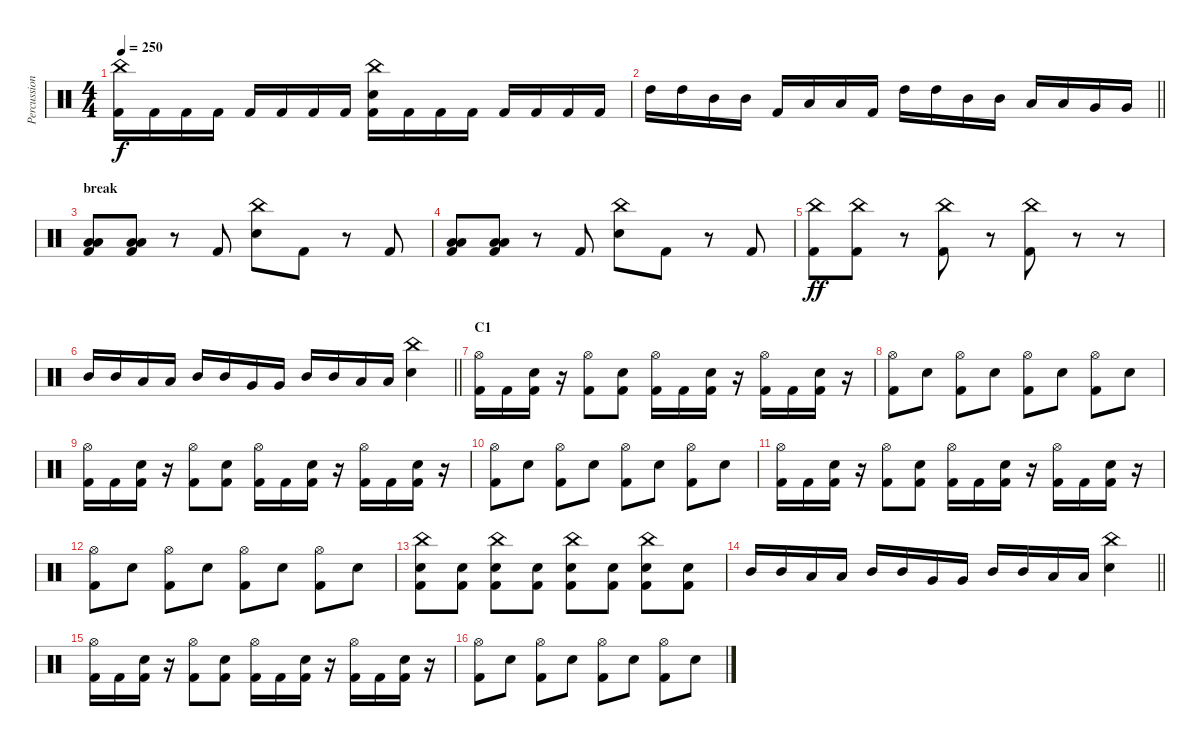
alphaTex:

\track ("Percussions" "Percussion") {instrument percussion}
\staff {score}
\articulation defaults
\ts (4 4)
\tempo 250
\clef neutral
\ks c
("China (hit)" "Kick (hit) 2").16{dy f} "Kick (hit) 2".16 "Kick (hit) 2".16 "Kick (hit) 2".16 "Kick (hit) 2".16 "Kick (hit) 2".16 "Kick (hit) 2".16 "Kick (hit) 2".16 ("China (hit)" "Electric Snare (hit)" "Kick (hit) 2").16 "Kick (hit) 2".16 "Kick (hit) 2".16 "Kick (hit) 2".16 "Kick (hit) 2".16 "Kick (hit) 2".16 "Kick (hit) 2".16 "Kick (hit) 2".16 |
\barLineRight lightlight "High Tom (hit)".16 "High Tom (hit)".16 "Mid Tom (hit)".16 "Mid Tom (hit)".16 "Kick (hit) 2".16 "Low Tom (hit)".16 "Low Tom (hit)".16 "Kick (hit) 2".16 "High Tom (hit)".16 "High Tom (hit)".16 "Mid Tom (hit)".16 "Mid Tom (hit)".16 "Low Tom (hit)".16 "Low Tom (hit)".16 "Very Low Tom (hit)".16 "Very Low Tom (hit)".16
|
\section ("" "break")
("Low Floor Tom (hit)" "Low Tom (hit)" "Kick (hit) 2").8 ("Low Floor Tom (hit)" "Low Tom (hit)" "Kick (hit) 2").8 r.8 "Kick (hit) 2".8 ("China (hit)" "Electric Snare (hit)").8 "Kick (hit) 2".8 r.8 "Kick (hit) 2".8 |
("Low Floor Tom (hit)" "Low Tom (hit)" "Kick (hit) 2").8 ("Low Floor Tom (hit)" "Low Tom (hit)" "Kick (hit) 2").8 r.8 "Kick (hit) 2".8 ("China (hit)" "Electric Snare (hit)").8 "Kick (hit) 2".8 r.8 "Kick (hit) 2".8 |
("China (hit)" "Kick (hit) 2").8{dy ff} ("China (hit)" "Kick (hit) 2").8 r.8 ("China (hit)" "Kick (hit) 2").8 r.8 ("China (hit)" "Kick (hit) 2").8 r.8 r.8 |
\barLineRight lightlight "Mid Tom (hit)".16 "Mid Tom (hit)".16 "Low Tom (hit)".16 "Low Tom (hit)".16 "Mid Tom (hit)".16 "Mid Tom (hit)".16 "Very Low Tom (hit)".16 "Very Low Tom (hit)".16 "Mid Tom (hit)".16 "Mid Tom (hit)".16 "Low Floor Tom (hit)".16 "Low Floor Tom (hit)".16
("China (hit)" "Electric Snare (hit)").4 |
\section ("" "C1")
("Hi-Hat (open)" "Kick (hit) 2").16 "Kick (hit) 2".16 ("Electric Snare (hit)" "Kick (hit) 2").16 r.16 ("Hi-Hat (open)" "Kick (hit) 2").8 ("Electric Snare (hit)" "Kick (hit) 2").8 ("Hi-Hat (open)" "Kick (hit) 2").16 "Kick (hit) 2".16 ("Electric Snare (hit)" "Kick (hit) 2").16 r.16 ("Hi-Hat (open)" "Kick (hit) 2").16 "Kick (hit) 2".16 ("Electric Snare (hit)" "Kick (hit) 2").16 r.16 |
("Hi-Hat (open)" "Kick (hit) 2").8 "Electric Snare (hit)".8 ("Hi-Hat (open)" "Kick (hit) 2").8 "Electric Snare (hit)".8 ("Hi-Hat (open)" "Kick (hit) 2").8 "Electric Snare (hit)".8 ("Hi-Hat (open)" "Kick (hit) 2").8 "Electric Snare (hit)".8 |
("Hi-Hat (open)" "Kick (hit) 2").16 "Kick (hit) 2".16 ("Electric Snare (hit)" "Kick (hit) 2").16 r.16 ("Hi-Hat (open)" "Kick (hit) 2").8 ("Electric Snare (hit)" "Kick (hit) 2").8 ("Hi-Hat (open)" "Kick (hit) 2").16 "Kick (hit) 2".16 ("Electric Snare (hit)" "Kick (hit) 2").16 r.16 ("Hi-Hat (open)" "Kick (hit) 2").16 "Kick (hit) 2".16 ("Electric Snare (hit)" "Kick (hit) 2").16 r.16 |
("Hi-Hat (open)" "Kick (hit) 2").8 "Electric Snare (hit)".8 ("Hi-Hat (open)" "Kick (hit) 2").8 "Electric Snare (hit)".8 ("Hi-Hat (open)" "Kick (hit) 2").8 "Electric Snare (hit)".8 ("Hi-Hat (open)" "Kick (hit) 2").8 "Electric Snare (hit)".8 |
("Hi-Hat (open)" "Kick (hit) 2").16 "Kick (hit) 2".16 ("Electric Snare (hit)" "Kick (hit) 2").16 r.16 ("Hi-Hat (open)" "Kick (hit) 2").8 ("Electric Snare (hit)" "Kick (hit) 2").8 ("Hi-Hat (open)" "Kick (hit) 2").16 "Kick (hit) 2".16 ("Electric Snare (hit)" "Kick (hit) 2").16 r.16 ("Hi-Hat (open)" "Kick (hit) 2").16 "Kick (hit) 2".16 ("Electric Snare (hit)" "Kick (hit) 2").16 r.16 |
("Hi-Hat (open)" "Kick (hit) 2").8 "Electric Snare (hit)".8 ("Hi-Hat (open)" "Kick (hit) 2").8 "Electric Snare (hit)".8 ("Hi-Hat (open)" "Kick (hit) 2").8 "Electric Snare (hit)".8 ("Hi-Hat (open)" "Kick (hit) 2").8 "Electric Snare (hit)".8 |
("China (hit)" "Electric Snare (hit)" "Kick (hit) 2").8 ("Electric Snare (hit)" "Kick (hit) 2").8 ("China (hit)" "Electric Snare (hit)" "Kick (hit) 2").8 ("Electric Snare (hit)" "Kick (hit) 2").8 ("China (hit)" "Electric Snare (hit)" "Kick (hit) 2").8 ("Electric Snare (hit)" "Kick (hit) 2").8 ("China (hit)" "Electric Snare (hit)" "Kick (hit) 2").8 ("Electric Snare (hit)" "Kick (hit) 2").8 |
\barLineRight lightlight "Mid Tom (hit)".16 "Mid Tom (hit)".16 "Low Tom (hit)".16 "Low Tom (hit)".16 "Mid Tom (hit)".16 "Mid Tom (hit)".16 "Very Low Tom (hit)".16 "Very Low Tom (hit)".16 "Mid Tom (hit)".16 "Mid Tom (hit)".16 "Low Floor Tom (hit)".16 "Low Floor Tom (hit)".16
("China (hit)" "Electric Snare (hit)").4 |
("Hi-Hat (open)" "Kick (hit) 2").16 "Kick (hit) 2".16 ("Electric Snare (hit)" "Kick (hit) 2").16 r.16 ("Hi-Hat (open)" "Kick (hit) 2").8 ("Electric Snare (hit)" "Kick (hit) 2").8 ("Hi-Hat (open)" "Kick (hit) 2").16 "Kick (hit) 2".16 ("Electric Snare (hit)" "Kick (hit) 2").16 r.16 ("Hi-Hat (open)" "Kick (hit) 2").16 "Kick (hit) 2".16 ("Electric Snare (hit)" "Kick (hit) 2").16 r.16 |
("Hi-Hat (open)" "Kick (hit) 2").8 "Electric Snare (hit)".8 ("Hi-Hat (open)" "Kick (hit) 2").8 "Electric Snare (hit)".8 ("Hi-Hat (open)" "Kick (hit) 2").8 "Electric Snare (hit)".8 ("Hi-Hat (open)" "Kick (hit) 2").8 "Electric Snare (hit)".8
